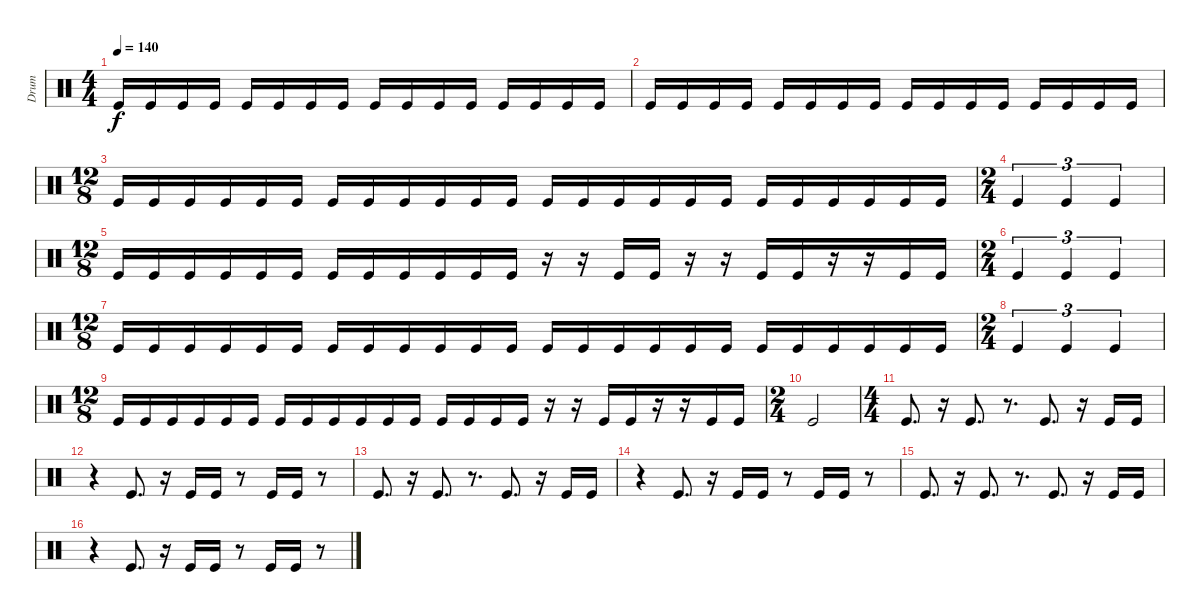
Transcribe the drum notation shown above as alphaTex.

\track ("Drum" "Drum") {instrument percussion}
\staff {score}
\articulation defaults
\ts (4 4)
\tempo 140
\clef neutral
\ks c "Kick (hit)".16{dy f} "Kick (hit)".16 "Kick (hit)".16 "Kick (hit)".16 "Kick (hit)".16 "Kick (hit)".16 "Kick (hit)".16 "Kick (hit)".16 "Kick (hit)".16 "Kick (hit)".16 "Kick (hit)".16 "Kick (hit)".16 "Kick (hit)".16 "Kick (hit)".16 "Kick (hit)".16 "Kick (hit)".16
|
"Kick (hit)".16 "Kick (hit)".16 "Kick (hit)".16 "Kick (hit)".16 "Kick (hit)".16 "Kick (hit)".16 "Kick (hit)".16 "Kick (hit)".16 "Kick (hit)".16 "Kick (hit)".16 "Kick (hit)".16 "Kick (hit)".16 "Kick (hit)".16 "Kick (hit)".16 "Kick (hit)".16 "Kick (hit)".16 |
\ts (12 8)
"Kick (hit)".16 "Kick (hit)".16 "Kick (hit)".16 "Kick (hit)".16 "Kick (hit)".16 "Kick (hit)".16 "Kick (hit)".16 "Kick (hit)".16 "Kick (hit)".16 "Kick (hit)".16 "Kick (hit)".16 "Kick (hit)".16 "Kick (hit)".16 "Kick (hit)".16 "Kick (hit)".16 "Kick (hit)".16 "Kick (hit)".16 "Kick (hit)".16 "Kick (hit)".16 "Kick (hit)".16 "Kick (hit)".16 "Kick (hit)".16 "Kick (hit)".16 "Kick (hit)".16 |
\ts (2 4)
"Kick (hit)".4{tu (3 2)} "Kick (hit)".4{tu (3 2)} "Kick (hit)".4{tu (3 2)} |
\ts (12 8)
"Kick (hit)".16 "Kick (hit)".16 "Kick (hit)".16 "Kick (hit)".16 "Kick (hit)".16 "Kick (hit)".16 "Kick (hit)".16 "Kick (hit)".16 "Kick (hit)".16 "Kick (hit)".16 "Kick (hit)".16 "Kick (hit)".16 r.16 r.16 "Kick (hit)".16 "Kick (hit)".16 r.16 r.16 "Kick (hit)".16 "Kick (hit)".16 r.16 r.16 "Kick (hit)".16 "Kick (hit)".16 |
\ts (2 4)
"Kick (hit)".4{tu (3 2)} "Kick (hit)".4{tu (3 2)} "Kick (hit)".4{tu (3 2)} |
\ts (12 8)
"Kick (hit)".16 "Kick (hit)".16 "Kick (hit)".16 "Kick (hit)".16 "Kick (hit)".16 "Kick (hit)".16 "Kick (hit)".16 "Kick (hit)".16 "Kick (hit)".16 "Kick (hit)".16 "Kick (hit)".16 "Kick (hit)".16 "Kick (hit)".16 "Kick (hit)".16 "Kick (hit)".16 "Kick (hit)".16 "Kick (hit)".16 "Kick (hit)".16 "Kick (hit)".16 "Kick (hit)".16 "Kick (hit)".16 "Kick (hit)".16 "Kick (hit)".16 "Kick (hit)".16 |
\ts (2 4)
"Kick (hit)".4{tu (3 2)} "Kick (hit)".4{tu (3 2)} "Kick (hit)".4{tu (3 2)} |
\ts (12 8)
"Kick (hit)".16 "Kick (hit)".16 "Kick (hit)".16 "Kick (hit)".16 "Kick (hit)".16 "Kick (hit)".16 "Kick (hit)".16 "Kick (hit)".16 "Kick (hit)".16 "Kick (hit)".16 "Kick (hit)".16 "Kick (hit)".16 "Kick (hit)".16 "Kick (hit)".16 "Kick (hit)".16 "Kick (hit)".16 r.16 r.16 "Kick (hit)".16 "Kick (hit)".16 r.16 r.16 "Kick (hit)".16 "Kick (hit)".16 |
\ts (2 4)
"Kick (hit)".2 |
\ts (4 4)
"Kick (hit)".8{d} r.16 "Kick (hit)".8{d} r.8{d} "Kick (hit)".8{d} r.16 "Kick (hit)".16 "Kick (hit)".16 |
r.4 "Kick (hit)".8{d} r.16 "Kick (hit)".16 "Kick (hit)".16 r.8 "Kick (hit)".16 "Kick (hit)".16 r.8 |
"Kick (hit)".8{d} r.16 "Kick (hit)".8{d} r.8{d} "Kick (hit)".8{d} r.16 "Kick (hit)".16 "Kick (hit)".16 |
r.4 "Kick (hit)".8{d} r.16 "Kick (hit)".16 "Kick (hit)".16 r.8 "Kick (hit)".16 "Kick (hit)".16 r.8 |
"Kick (hit)".8{d} r.16 "Kick (hit)".8{d} r.8{d} "Kick (hit)".8{d} r.16 "Kick (hit)".16 "Kick (hit)".16 |
r.4 "Kick (hit)".8{d} r.16 "Kick (hit)".16 "Kick (hit)".16 r.8 "Kick (hit)".16 "Kick (hit)".16 r.8
